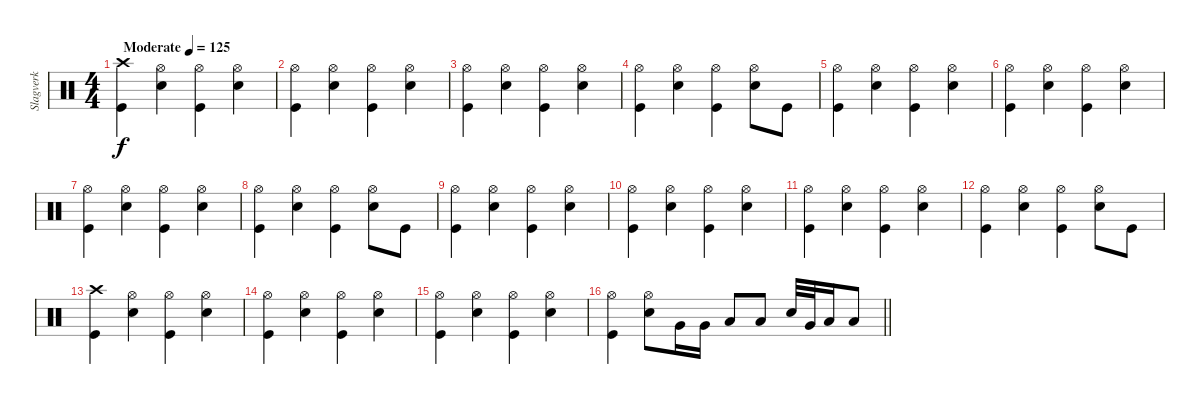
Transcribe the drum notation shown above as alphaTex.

\track ("Slagverk" "Slagverk") {instrument percussion}
\staff {score}
\articulation defaults
\ts (4 4)
\tempo (125 "Moderate")
\clef neutral
\ks c
("Crash high (hit)" "Kick (hit)").4{dy f} ("Hi-Hat (open)" "Snare (hit) 2").4 ("Hi-Hat (open)" "Kick (hit)").4 ("Hi-Hat (open)" "Snare (hit) 2").4 |
("Hi-Hat (open)" "Kick (hit)").4 ("Hi-Hat (open)" "Snare (hit) 2").4 ("Hi-Hat (open)" "Kick (hit)").4 ("Hi-Hat (open)" "Snare (hit) 2").4 |
("Hi-Hat (open)" "Kick (hit)").4 ("Hi-Hat (open)" "Snare (hit) 2").4 ("Hi-Hat (open)" "Kick (hit)").4 ("Hi-Hat (open)" "Snare (hit) 2").4 |
("Hi-Hat (open)" "Kick (hit)").4 ("Hi-Hat (open)" "Snare (hit) 2").4 ("Hi-Hat (open)" "Kick (hit)").4 ("Hi-Hat (open)" "Snare (hit) 2").8 "Kick (hit)".8 |
("Hi-Hat (open)" "Kick (hit)").4 ("Hi-Hat (open)" "Snare (hit) 2").4 ("Hi-Hat (open)" "Kick (hit)").4 ("Hi-Hat (open)" "Snare (hit) 2").4 |
("Hi-Hat (open)" "Kick (hit)").4 ("Hi-Hat (open)" "Snare (hit) 2").4 ("Hi-Hat (open)" "Kick (hit)").4 ("Hi-Hat (open)" "Snare (hit) 2").4 |
("Hi-Hat (open)" "Kick (hit)").4 ("Hi-Hat (open)" "Snare (hit) 2").4 ("Hi-Hat (open)" "Kick (hit)").4 ("Hi-Hat (open)" "Snare (hit) 2").4 |
("Hi-Hat (open)" "Kick (hit)").4 ("Hi-Hat (open)" "Snare (hit) 2").4 ("Hi-Hat (open)" "Kick (hit)").4 ("Hi-Hat (open)" "Snare (hit) 2").8 "Kick (hit)".8 |
("Hi-Hat (open)" "Kick (hit)").4 ("Hi-Hat (open)" "Snare (hit) 2").4 ("Hi-Hat (open)" "Kick (hit)").4 ("Hi-Hat (open)" "Snare (hit) 2").4 |
("Hi-Hat (open)" "Kick (hit)").4 ("Hi-Hat (open)" "Snare (hit) 2").4 ("Hi-Hat (open)" "Kick (hit)").4 ("Hi-Hat (open)" "Snare (hit) 2").4 |
("Hi-Hat (open)" "Kick (hit)").4 ("Hi-Hat (open)" "Snare (hit) 2").4 ("Hi-Hat (open)" "Kick (hit)").4 ("Hi-Hat (open)" "Snare (hit) 2").4 |
("Hi-Hat (open)" "Kick (hit)").4 ("Hi-Hat (open)" "Snare (hit) 2").4 ("Hi-Hat (open)" "Kick (hit)").4 ("Hi-Hat (open)" "Snare (hit) 2").8 "Kick (hit)".8 |
("Crash high (hit)" "Kick (hit)").4 ("Hi-Hat (open)" "Snare (hit) 2").4 ("Hi-Hat (open)" "Kick (hit)").4 ("Hi-Hat (open)" "Snare (hit) 2").4 |
("Hi-Hat (open)" "Kick (hit)").4 ("Hi-Hat (open)" "Snare (hit) 2").4 ("Hi-Hat (open)" "Kick (hit)").4 ("Hi-Hat (open)" "Snare (hit) 2").4 |
("Hi-Hat (open)" "Kick (hit)").4 ("Hi-Hat (open)" "Snare (hit) 2").4 ("Hi-Hat (open)" "Kick (hit)").4 ("Hi-Hat (open)" "Snare (hit) 2").4 |
\barLineRight lightlight
("Hi-Hat (open)" "Kick (hit)").4 ("Hi-Hat (open)" "Snare (hit) 2").8 "Very Low Tom (hit)".16 "Very Low Tom (hit)".16 "Low Floor Tom (hit)".8 "Low Floor Tom (hit)".8 "Snare (hit) 2".32 "Very Low Tom (hit)".32 "Low Floor Tom (hit)".16 "Low Floor Tom (hit)".8
